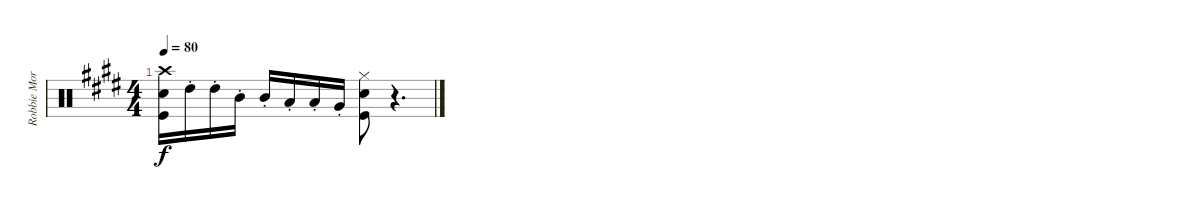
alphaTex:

\track ("Robbie Morris Drums" "Robbie Mor") {instrument percussion}
\staff {score}
\articulation defaults
\ts (4 4)
\tempo 80
\clef neutral
\ks e
("Crash high (hit)" "Snare (hit) 2" "Kick (hit)").16{dy f} "High Tom (hit)"{st}.16 "High Tom (hit)"{st}.16 "Mid Tom (hit)"{st}.16 "Mid Tom (hit)"{st}.16 "Low Tom (hit)"{st}.16 "Low Tom (hit)"{st}.16 "Very Low Tom (hit)"{st}.16 ("Hi-Hat (closed)" "Snare (hit) 2" "Kick (hit)").8 r.4{d}
